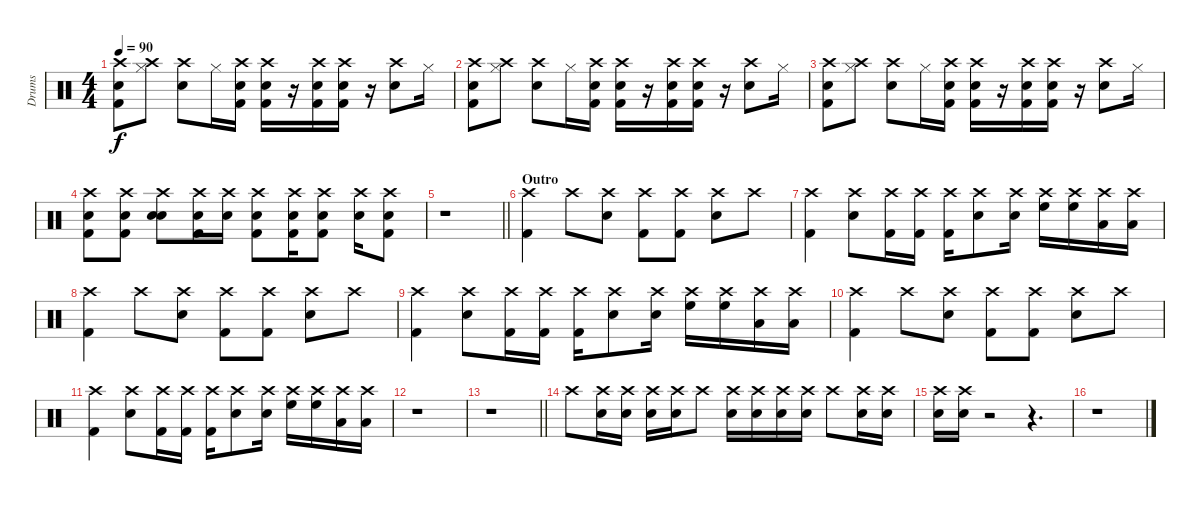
\track ("Drums" "Drums") {instrument percussion}
\staff {score}
\articulation defaults
\ts (4 4)
\tempo 90
\clef neutral
\ks c
("Crash high (hit)" "Kick (hit) 2" "Snare (hit) 2").8{dy f} ("Crash high (hit)" "Hi-Hat (closed)").8 ("Crash high (hit)" "Electric Snare (hit)").8 "Hi-Hat (closed)".16 ("Crash high (hit)" "Kick (hit) 2" "Snare (hit) 2").16 ("Crash high (hit)" "Kick (hit) 2" "Snare (hit) 2").16 r.16 ("Crash high (hit)" "Kick (hit) 2" "Snare (hit) 2").16 ("Crash high (hit)" "Kick (hit) 2" "Snare (hit) 2").16 r.16 ("Crash high (hit)" "Electric Snare (hit)").8 "Hi-Hat (closed)".16 |
("Crash high (hit)" "Kick (hit) 2" "Snare (hit) 2").8 ("Crash high (hit)" "Hi-Hat (closed)").8 ("Crash high (hit)" "Electric Snare (hit)").8 "Hi-Hat (closed)".16 ("Crash high (hit)" "Kick (hit) 2" "Snare (hit) 2").16 ("Crash high (hit)" "Kick (hit) 2" "Snare (hit) 2").16 r.16 ("Crash high (hit)" "Kick (hit) 2" "Snare (hit) 2").16 ("Crash high (hit)" "Kick (hit) 2" "Snare (hit) 2").16 r.16 ("Crash high (hit)" "Electric Snare (hit)").8 "Hi-Hat (closed)".16 |
("Crash high (hit)" "Kick (hit) 2" "Snare (hit) 2").8 ("Crash high (hit)" "Hi-Hat (closed)").8 ("Crash high (hit)" "Electric Snare (hit)").8 "Hi-Hat (closed)".16 ("Crash high (hit)" "Kick (hit) 2" "Snare (hit) 2").16 ("Crash high (hit)" "Kick (hit) 2" "Snare (hit) 2").16 r.16 ("Crash high (hit)" "Kick (hit) 2" "Snare (hit) 2").16 ("Crash high (hit)" "Kick (hit) 2" "Snare (hit) 2").16 r.16 ("Crash high (hit)" "Electric Snare (hit)").8 "Hi-Hat (closed)".16 |
("Crash high (hit)" "Kick (hit) 2" "Snare (hit) 2").8 ("Crash high (hit)" "Kick (hit) 2" "Snare (hit) 2").8 ("Crash high (hit)" "Electric Snare (hit)" "Electric Snare (hit)").8 ("Crash high (hit)" "Kick (hit) 2" "Snare (hit) 2").16 ("Crash high (hit)" "Electric Snare (hit)").16 ("Crash high (hit)" "Kick (hit) 2" "Snare (hit) 2").8 ("Crash high (hit)" "Kick (hit) 2" "Snare (hit) 2").16 ("Crash high (hit)" "Kick (hit) 2" "Snare (hit) 2").8 ("Crash high (hit)" "Electric Snare (hit)").16 ("Crash high (hit)" "Kick (hit) 2" "Snare (hit) 2").8 |
\barLineRight lightlight
r.1 |
\section ("" "Outro")
("Crash high (hit)" "Kick (hit) 2").4 "Crash high (hit)".8 ("Crash high (hit)" "Snare (hit) 2").8 ("Crash high (hit)" "Kick (hit) 2").8 ("Crash high (hit)" "Kick (hit) 2").8 ("Crash high (hit)" "Snare (hit) 2").8 "Crash high (hit)".8 |
("Crash high (hit)" "Kick (hit) 2").4 ("Crash high (hit)" "Snare (hit) 2").8 ("Crash high (hit)" "Kick (hit) 2").16 ("Crash high (hit)" "Kick (hit) 2").16 ("Crash high (hit)" "Kick (hit) 2").16 ("Crash high (hit)" "Snare (hit) 2").8 ("Crash high (hit)" "Snare (hit) 2").16 ("Crash high (hit)" "High Floor Tom (hit)").16 ("Crash high (hit)" "High Floor Tom (hit)").16 ("Crash high (hit)" "Low Tom (hit)").16 ("Crash high (hit)" "Low Tom (hit)").16 |
("Crash high (hit)" "Kick (hit) 2").4 "Crash high (hit)".8 ("Crash high (hit)" "Snare (hit) 2").8 ("Crash high (hit)" "Kick (hit) 2").8 ("Crash high (hit)" "Kick (hit) 2").8 ("Crash high (hit)" "Snare (hit) 2").8 "Crash high (hit)".8 |
("Crash high (hit)" "Kick (hit) 2").4 ("Crash high (hit)" "Snare (hit) 2").8 ("Crash high (hit)" "Kick (hit) 2").16 ("Crash high (hit)" "Kick (hit) 2").16 ("Crash high (hit)" "Kick (hit) 2").16 ("Crash high (hit)" "Snare (hit) 2").8 ("Crash high (hit)" "Snare (hit) 2").16 ("Crash high (hit)" "High Floor Tom (hit)").16 ("Crash high (hit)" "High Floor Tom (hit)").16 ("Crash high (hit)" "Low Tom (hit)").16 ("Crash high (hit)" "Low Tom (hit)").16 |
("Crash high (hit)" "Kick (hit) 2").4 "Crash high (hit)".8 ("Crash high (hit)" "Snare (hit) 2").8 ("Crash high (hit)" "Kick (hit) 2").8 ("Crash high (hit)" "Kick (hit) 2").8 ("Crash high (hit)" "Snare (hit) 2").8 "Crash high (hit)".8 |
("Crash high (hit)" "Kick (hit) 2").4 ("Crash high (hit)" "Snare (hit) 2").8 ("Crash high (hit)" "Kick (hit) 2").16 ("Crash high (hit)" "Kick (hit) 2").16 ("Crash high (hit)" "Kick (hit) 2").16 ("Crash high (hit)" "Snare (hit) 2").8 ("Crash high (hit)" "Snare (hit) 2").16 ("Crash high (hit)" "High Floor Tom (hit)").16 ("Crash high (hit)" "High Floor Tom (hit)").16 ("Crash high (hit)" "Low Tom (hit)").16 ("Crash high (hit)" "Low Tom (hit)").16 |
r.1 |
\barLineRight lightlight
r.1 |
"Crash high (hit)".8 ("Crash high (hit)" "Snare (hit) 2").16 ("Crash high (hit)" "Snare (hit) 2").16 ("Crash high (hit)" "Snare (hit) 2").16 ("Crash high (hit)" "Snare (hit) 2").16 "Crash high (hit)".8 ("Crash high (hit)" "Snare (hit) 2").16 ("Crash high (hit)" "Snare (hit) 2").16 ("Crash high (hit)" "Snare (hit) 2").16 ("Crash high (hit)" "Snare (hit) 2").16 "Crash high (hit)".8 ("Crash high (hit)" "Snare (hit) 2").16 ("Crash high (hit)" "Snare (hit) 2").16 |
("Crash high (hit)" "Snare (hit) 2").16 ("Crash high (hit)" "Snare (hit) 2").16 r.2 r.4{d} |
r.1
